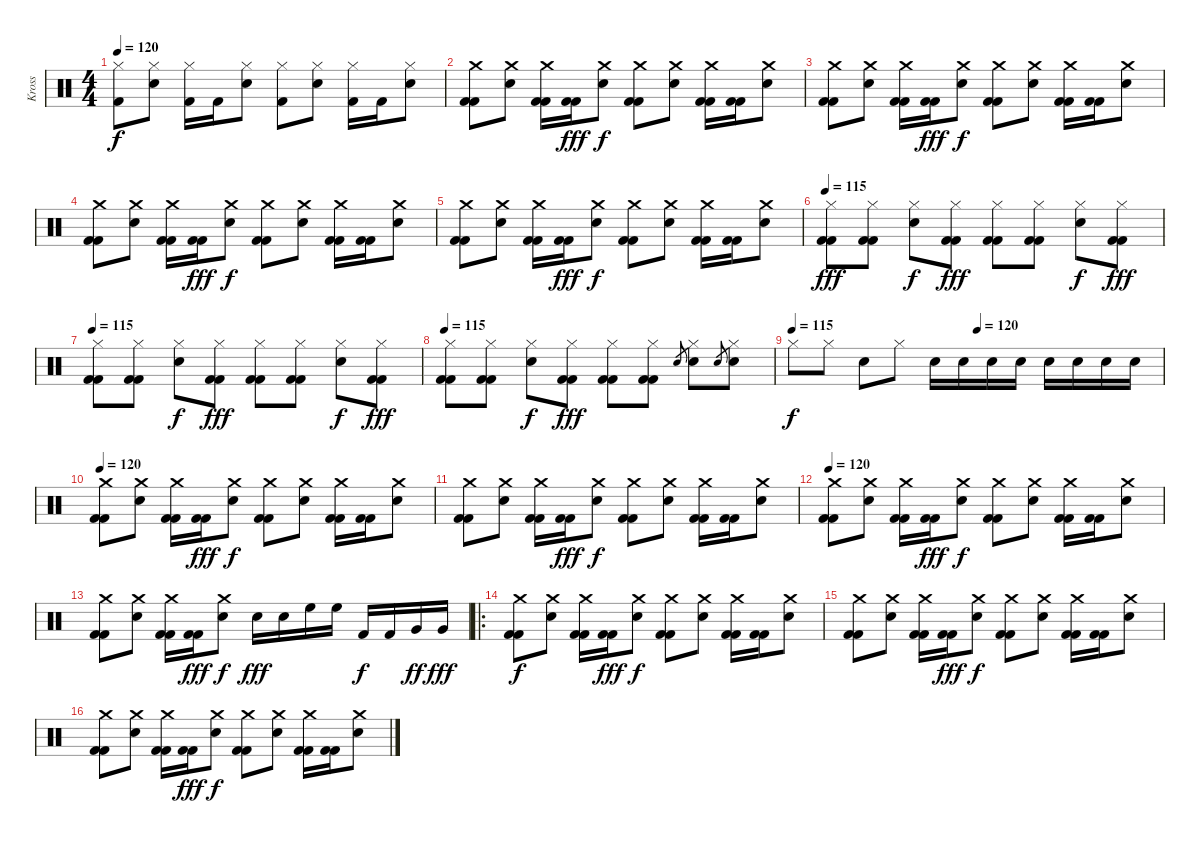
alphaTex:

\track ("Kross" "Kross") {instrument percussion}
\staff {score}
\articulation defaults
\ts (4 4)
\tempo 120
\clef neutral
\ks c
("Kick (hit) 2" "Hi-Hat (closed)").8{dy f} ("Hi-Hat (closed)" "Snare (hit) 2").8 ("Kick (hit) 2" "Hi-Hat (closed)").16 "Kick (hit) 2".16 ("Hi-Hat (closed)" "Snare (hit) 2").8 ("Kick (hit) 2" "Hi-Hat (closed)").8 ("Hi-Hat (closed)" "Snare (hit) 2").8 ("Kick (hit) 2" "Hi-Hat (closed)").16 "Kick (hit) 2".16 ("Hi-Hat (closed)" "Snare (hit) 2").8 |
("Kick (hit) 2" "Kick (hit) 2" "Crash medium (hit)").8 ("Crash medium (hit)" "Snare (hit) 2").8 ("Kick (hit) 2" "Kick (hit) 2" "Crash medium (hit)").16 ("Kick (hit) 2" "Kick (hit) 2").16{dy fff} ("Crash medium (hit)" "Snare (hit) 2").8{dy f} ("Kick (hit) 2" "Kick (hit) 2" "Crash medium (hit)").8 ("Crash medium (hit)" "Snare (hit) 2").8 ("Kick (hit) 2" "Kick (hit) 2" "Crash medium (hit)").16 ("Kick (hit) 2" "Kick (hit) 2").16 ("Crash medium (hit)" "Snare (hit) 2").8 |
("Kick (hit) 2" "Kick (hit) 2" "Crash medium (hit)").8 ("Crash medium (hit)" "Snare (hit) 2").8 ("Kick (hit) 2" "Kick (hit) 2" "Crash medium (hit)").16 ("Kick (hit) 2" "Kick (hit) 2").16{dy fff} ("Crash medium (hit)" "Snare (hit) 2").8{dy f} ("Kick (hit) 2" "Kick (hit) 2" "Crash medium (hit)").8 ("Crash medium (hit)" "Snare (hit) 2").8 ("Kick (hit) 2" "Kick (hit) 2" "Crash medium (hit)").16 ("Kick (hit) 2" "Kick (hit) 2").16 ("Crash medium (hit)" "Snare (hit) 2").8 |
("Kick (hit) 2" "Kick (hit) 2" "Crash medium (hit)").8 ("Crash medium (hit)" "Snare (hit) 2").8 ("Kick (hit) 2" "Kick (hit) 2" "Crash medium (hit)").16 ("Kick (hit) 2" "Kick (hit) 2").16{dy fff} ("Crash medium (hit)" "Snare (hit) 2").8{dy f} ("Kick (hit) 2" "Kick (hit) 2" "Crash medium (hit)").8 ("Crash medium (hit)" "Snare (hit) 2").8 ("Kick (hit) 2" "Kick (hit) 2" "Crash medium (hit)").16 ("Kick (hit) 2" "Kick (hit) 2").16 ("Crash medium (hit)" "Snare (hit) 2").8 |
("Kick (hit) 2" "Kick (hit) 2" "Crash medium (hit)").8 ("Crash medium (hit)" "Snare (hit) 2").8 ("Kick (hit) 2" "Kick (hit) 2" "Crash medium (hit)").16 ("Kick (hit) 2" "Kick (hit) 2").16{dy fff} ("Crash medium (hit)" "Snare (hit) 2").8{dy f} ("Kick (hit) 2" "Kick (hit) 2" "Crash medium (hit)").8 ("Crash medium (hit)" "Snare (hit) 2").8 ("Kick (hit) 2" "Kick (hit) 2" "Crash medium (hit)").16 ("Kick (hit) 2" "Kick (hit) 2").16 ("Crash medium (hit)" "Snare (hit) 2").8 |
\tempo 115
("Kick (hit) 2" "Kick (hit) 2" "Hi-Hat (closed)").8{dy fff} ("Kick (hit) 2" "Kick (hit) 2" "Hi-Hat (closed)").8 ("Hi-Hat (closed)" "Snare (hit) 2").8{dy f} ("Kick (hit) 2" "Kick (hit) 2" "Hi-Hat (closed)").8{dy fff} ("Kick (hit) 2" "Kick (hit) 2" "Hi-Hat (closed)").8 ("Kick (hit) 2" "Kick (hit) 2" "Hi-Hat (closed)").8 ("Hi-Hat (closed)" "Snare (hit) 2").8{dy f} ("Kick (hit) 2" "Kick (hit) 2" "Hi-Hat (closed)").8{dy fff} |
\tempo 115
("Kick (hit) 2" "Kick (hit) 2" "Hi-Hat (closed)").8 ("Kick (hit) 2" "Kick (hit) 2" "Hi-Hat (closed)").8 ("Hi-Hat (closed)" "Snare (hit) 2").8{dy f} ("Kick (hit) 2" "Kick (hit) 2" "Hi-Hat (closed)").8{dy fff} ("Kick (hit) 2" "Kick (hit) 2" "Hi-Hat (closed)").8 ("Kick (hit) 2" "Kick (hit) 2" "Hi-Hat (closed)").8 ("Hi-Hat (closed)" "Snare (hit) 2").8{dy f} ("Kick (hit) 2" "Kick (hit) 2" "Hi-Hat (closed)").8{dy fff} |
\tempo 115
("Kick (hit) 2" "Kick (hit) 2" "Hi-Hat (closed)").8 ("Kick (hit) 2" "Kick (hit) 2" "Hi-Hat (closed)").8 ("Hi-Hat (closed)" "Snare (hit) 2").8{dy f} ("Kick (hit) 2" "Kick (hit) 2" "Hi-Hat (closed)").8{dy fff} ("Kick (hit) 2" "Kick (hit) 2" "Hi-Hat (closed)").8 ("Kick (hit) 2" "Kick (hit) 2" "Hi-Hat (closed)").8 "Snare (hit) 2".8{gr} ("Snare (hit) 2" "Hi-Hat (closed)").8 "Snare (hit) 2".8{gr} ("Snare (hit) 2" "Hi-Hat (closed)").8 |
\tempo (120 0.5)
\tempo (115)
"Hi-Hat (closed)".8{dy f} "Hi-Hat (closed)".8 "Snare (hit) 2".8 "Hi-Hat (closed)".8 "Snare (hit) 2".16 "Snare (hit) 2".16 "Snare (hit) 2".16 "Snare (hit) 2".16 "Snare (hit) 2".16 "Snare (hit) 2".16 "Snare (hit) 2".16 "Snare (hit) 2".16 |
\tempo 120
("Kick (hit) 2" "Kick (hit) 2" "Crash medium (hit)").8 ("Crash medium (hit)" "Snare (hit) 2").8 ("Kick (hit) 2" "Kick (hit) 2" "Crash medium (hit)").16 ("Kick (hit) 2" "Kick (hit) 2").16{dy fff} ("Crash medium (hit)" "Snare (hit) 2").8{dy f} ("Kick (hit) 2" "Kick (hit) 2" "Crash medium (hit)").8 ("Crash medium (hit)" "Snare (hit) 2").8 ("Kick (hit) 2" "Kick (hit) 2" "Crash medium (hit)").16 ("Kick (hit) 2" "Kick (hit) 2").16 ("Crash medium (hit)" "Snare (hit) 2").8 |
("Kick (hit) 2" "Kick (hit) 2" "Crash medium (hit)").8 ("Crash medium (hit)" "Snare (hit) 2").8 ("Kick (hit) 2" "Kick (hit) 2" "Crash medium (hit)").16 ("Kick (hit) 2" "Kick (hit) 2").16{dy fff} ("Crash medium (hit)" "Snare (hit) 2").8{dy f} ("Kick (hit) 2" "Kick (hit) 2" "Crash medium (hit)").8 ("Crash medium (hit)" "Snare (hit) 2").8 ("Kick (hit) 2" "Kick (hit) 2" "Crash medium (hit)").16 ("Kick (hit) 2" "Kick (hit) 2").16 ("Crash medium (hit)" "Snare (hit) 2").8 |
\tempo 120
("Kick (hit) 2" "Kick (hit) 2" "Crash medium (hit)").8 ("Crash medium (hit)" "Snare (hit) 2").8 ("Kick (hit) 2" "Kick (hit) 2" "Crash medium (hit)").16 ("Kick (hit) 2" "Kick (hit) 2").16{dy fff} ("Crash medium (hit)" "Snare (hit) 2").8{dy f} ("Kick (hit) 2" "Kick (hit) 2" "Crash medium (hit)").8 ("Crash medium (hit)" "Snare (hit) 2").8 ("Kick (hit) 2" "Kick (hit) 2" "Crash medium (hit)").16 ("Kick (hit) 2" "Kick (hit) 2").16 ("Crash medium (hit)" "Snare (hit) 2").8 |
("Kick (hit) 2" "Kick (hit) 2" "Crash medium (hit)").8 ("Crash medium (hit)" "Snare (hit) 2").8 ("Kick (hit) 2" "Kick (hit) 2" "Crash medium (hit)").16 ("Kick (hit) 2" "Kick (hit) 2").16{dy fff} ("Crash medium (hit)" "Snare (hit) 2").8{dy f} "Snare (hit) 2".16{dy fff} "Snare (hit) 2".16 "High Floor Tom (hit)".16 "High Floor Tom (hit)".16 "Kick (hit) 2".16{dy f} "Kick (hit) 2".16 "Very Low Tom (hit)".16{dy ff} "Very Low Tom (hit)".16{dy fff} |
\ro
("Kick (hit) 2" "Kick (hit) 2" "Crash medium (hit)").8{dy f} ("Crash medium (hit)" "Snare (hit) 2").8 ("Kick (hit) 2" "Kick (hit) 2" "Crash medium (hit)").16 ("Kick (hit) 2" "Kick (hit) 2").16{dy fff} ("Crash medium (hit)" "Snare (hit) 2").8{dy f} ("Kick (hit) 2" "Kick (hit) 2" "Crash medium (hit)").8 ("Crash medium (hit)" "Snare (hit) 2").8 ("Kick (hit) 2" "Kick (hit) 2" "Crash medium (hit)").16 ("Kick (hit) 2" "Kick (hit) 2").16 ("Crash medium (hit)" "Snare (hit) 2").8 |
("Kick (hit) 2" "Kick (hit) 2" "Crash medium (hit)").8 ("Crash medium (hit)" "Snare (hit) 2").8 ("Kick (hit) 2" "Kick (hit) 2" "Crash medium (hit)").16 ("Kick (hit) 2" "Kick (hit) 2").16{dy fff} ("Crash medium (hit)" "Snare (hit) 2").8{dy f} ("Kick (hit) 2" "Kick (hit) 2" "Crash medium (hit)").8 ("Crash medium (hit)" "Snare (hit) 2").8 ("Kick (hit) 2" "Kick (hit) 2" "Crash medium (hit)").16 ("Kick (hit) 2" "Kick (hit) 2").16 ("Crash medium (hit)" "Snare (hit) 2").8 |
("Kick (hit) 2" "Kick (hit) 2" "Crash medium (hit)").8 ("Crash medium (hit)" "Snare (hit) 2").8 ("Kick (hit) 2" "Kick (hit) 2" "Crash medium (hit)").16 ("Kick (hit) 2" "Kick (hit) 2").16{dy fff} ("Crash medium (hit)" "Snare (hit) 2").8{dy f} ("Kick (hit) 2" "Kick (hit) 2" "Crash medium (hit)").8 ("Crash medium (hit)" "Snare (hit) 2").8 ("Kick (hit) 2" "Kick (hit) 2" "Crash medium (hit)").16 ("Kick (hit) 2" "Kick (hit) 2").16 ("Crash medium (hit)" "Snare (hit) 2").8
